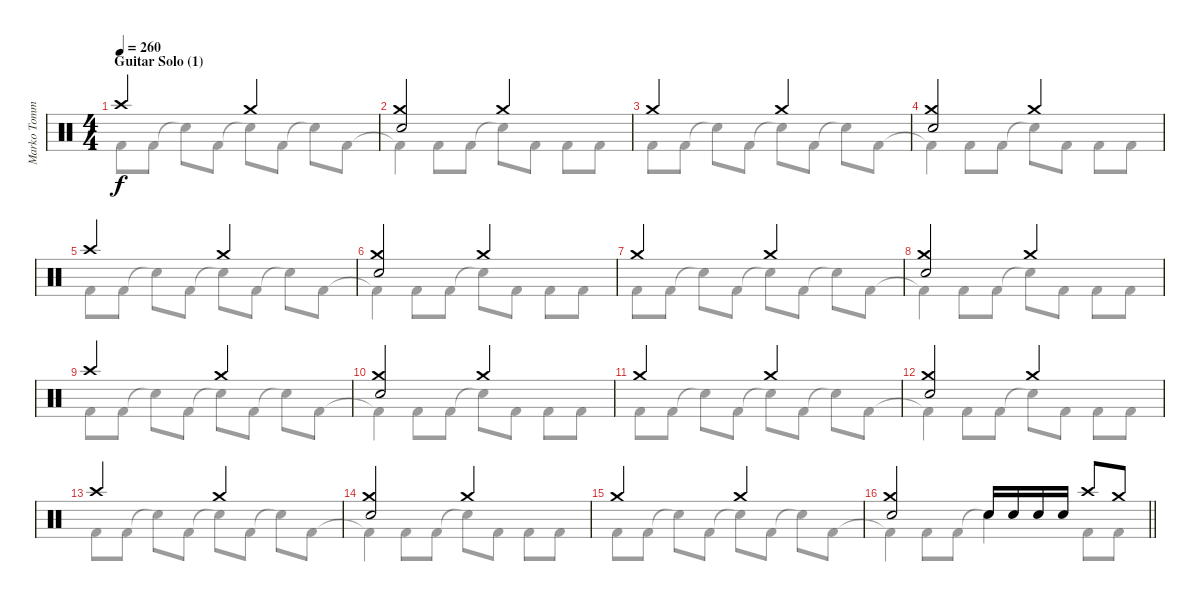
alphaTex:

\track ("Marko Tommila (drums)" "Marko Tomm") {instrument percussion}
\staff {score}
\articulation defaults
\voice
\ts (4 4)
\section ("" "Guitar Solo (1)")
\tempo 260
\clef neutral
\ks aminor "Crash high (hit)".2{dy f} "Crash medium (hit)".2
|
("Crash medium (hit)" "Electric Snare (hit)").2 "Crash medium (hit)".2 |
"Crash medium (hit)".2 "Crash medium (hit)".2 |
("Crash medium (hit)" "Electric Snare (hit)").2 "Crash medium (hit)".2 |
"Crash high (hit)".2 "Crash medium (hit)".2 |
("Crash medium (hit)" "Electric Snare (hit)").2 "Crash medium (hit)".2 |
"Crash medium (hit)".2 "Crash medium (hit)".2 |
("Crash medium (hit)" "Electric Snare (hit)").2 "Crash medium (hit)".2 |
"Crash high (hit)".2 "Crash medium (hit)".2 |
("Crash medium (hit)" "Electric Snare (hit)").2 "Crash medium (hit)".2 |
"Crash medium (hit)".2 "Crash medium (hit)".2 |
("Crash medium (hit)" "Electric Snare (hit)").2 "Crash medium (hit)".2 |
"Crash high (hit)".2 "Crash medium (hit)".2 |
("Crash medium (hit)" "Electric Snare (hit)").2 "Crash medium (hit)".2 |
"Crash medium (hit)".2 "Crash medium (hit)".2 |
\barLineRight lightlight
("Crash medium (hit)" "Electric Snare (hit)").2 "Electric Snare (hit)".16 "Electric Snare (hit)".16 "Electric Snare (hit)".16 "Electric Snare (hit)".16 "Crash high (hit)".8 "Crash medium (hit)".8
\voice
\clef neutral
\ottava regular
\simile none
\ks aminor "Kick (hit) 2".8{dy f} "Kick (hit) 2".8 "Snare (hit)"{t}.8 "Kick (hit) 2".8 "Snare (hit)"{t}.8 "Kick (hit) 2".8 "Snare (hit)"{t}.8 "Kick (hit) 2".8
|
"Kick (hit) 2"{t}.4 "Kick (hit) 2".8 "Kick (hit) 2".8 "Snare (hit)"{t}.8 "Kick (hit) 2".8 "Kick (hit) 2".8 "Kick (hit) 2".8 |
"Kick (hit) 2".8 "Kick (hit) 2".8 "Snare (hit)"{t}.8 "Kick (hit) 2".8 "Snare (hit)"{t}.8 "Kick (hit) 2".8 "Snare (hit)"{t}.8 "Kick (hit) 2".8 |
"Kick (hit) 2"{t}.4 "Kick (hit) 2".8 "Kick (hit) 2".8 "Snare (hit)"{t}.8 "Kick (hit) 2".8 "Kick (hit) 2".8 "Kick (hit) 2".8 |
"Kick (hit) 2".8 "Kick (hit) 2".8 "Snare (hit)"{t}.8 "Kick (hit) 2".8 "Snare (hit)"{t}.8 "Kick (hit) 2".8 "Snare (hit)"{t}.8 "Kick (hit) 2".8 |
"Kick (hit) 2"{t}.4 "Kick (hit) 2".8 "Kick (hit) 2".8 "Snare (hit)"{t}.8 "Kick (hit) 2".8 "Kick (hit) 2".8 "Kick (hit) 2".8 |
"Kick (hit) 2".8 "Kick (hit) 2".8 "Snare (hit)"{t}.8 "Kick (hit) 2".8 "Snare (hit)"{t}.8 "Kick (hit) 2".8 "Snare (hit)"{t}.8 "Kick (hit) 2".8 |
"Kick (hit) 2"{t}.4 "Kick (hit) 2".8 "Kick (hit) 2".8 "Snare (hit)"{t}.8 "Kick (hit) 2".8 "Kick (hit) 2".8 "Kick (hit) 2".8 |
"Kick (hit) 2".8 "Kick (hit) 2".8 "Snare (hit)"{t}.8 "Kick (hit) 2".8 "Snare (hit)"{t}.8 "Kick (hit) 2".8 "Snare (hit)"{t}.8 "Kick (hit) 2".8 |
"Kick (hit) 2"{t}.4 "Kick (hit) 2".8 "Kick (hit) 2".8 "Snare (hit)"{t}.8 "Kick (hit) 2".8 "Kick (hit) 2".8 "Kick (hit) 2".8 |
"Kick (hit) 2".8 "Kick (hit) 2".8 "Snare (hit)"{t}.8 "Kick (hit) 2".8 "Snare (hit)"{t}.8 "Kick (hit) 2".8 "Snare (hit)"{t}.8 "Kick (hit) 2".8 |
"Kick (hit) 2"{t}.4 "Kick (hit) 2".8 "Kick (hit) 2".8 "Snare (hit)"{t}.8 "Kick (hit) 2".8 "Kick (hit) 2".8 "Kick (hit) 2".8 |
"Kick (hit) 2".8 "Kick (hit) 2".8 "Snare (hit)"{t}.8 "Kick (hit) 2".8 "Snare (hit)"{t}.8 "Kick (hit) 2".8 "Snare (hit)"{t}.8 "Kick (hit) 2".8 |
"Kick (hit) 2"{t}.4 "Kick (hit) 2".8 "Kick (hit) 2".8 "Snare (hit)"{t}.8 "Kick (hit) 2".8 "Kick (hit) 2".8 "Kick (hit) 2".8 |
"Kick (hit) 2".8 "Kick (hit) 2".8 "Snare (hit)"{t}.8 "Kick (hit) 2".8 "Snare (hit)"{t}.8 "Kick (hit) 2".8 "Snare (hit)"{t}.8 "Kick (hit) 2".8 |
\barLineRight lightlight "Kick (hit) 2"{t}.4 "Kick (hit) 2".8 "Kick (hit) 2".8 "Snare (hit)"{t}.4 "Kick (hit) 2".8 "Kick (hit) 2".8
